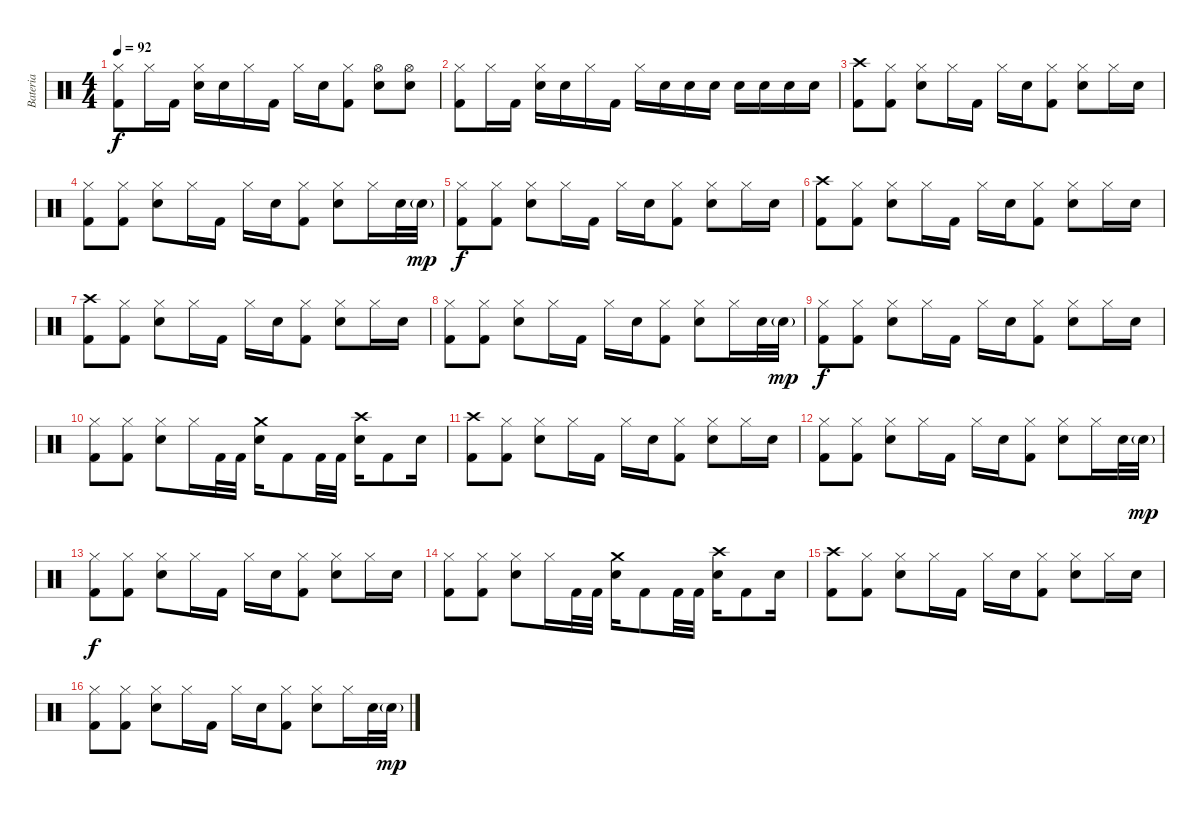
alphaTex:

\track ("Bateria" "Bateria") {instrument percussion}
\staff {score}
\articulation defaults
\ts (4 4)
\tempo 92
\clef neutral
\ks c
("Hi-Hat (closed)" "Kick (hit) 2").8{dy f} "Hi-Hat (closed)".16 "Kick (hit) 2".16 ("Electric Snare (hit)" "Hi-Hat (closed)").16 "Electric Snare (hit)".16 "Hi-Hat (closed)".16 "Kick (hit) 2".16 "Hi-Hat (closed)".16 "Electric Snare (hit)".16 ("Hi-Hat (closed)" "Kick (hit) 2").8 ("Electric Snare (hit)" "Hi-Hat (open)").8 ("Electric Snare (hit)" "Hi-Hat (open)").8 |
("Hi-Hat (closed)" "Kick (hit) 2").8 "Hi-Hat (closed)".16 "Kick (hit) 2".16 ("Electric Snare (hit)" "Hi-Hat (closed)").16 "Electric Snare (hit)".16 "Hi-Hat (closed)".16 "Kick (hit) 2".16 "Hi-Hat (closed)".16 "Electric Snare (hit)".16 "Electric Snare (hit)".16 "Electric Snare (hit)".16 "Electric Snare (hit)".16 "Electric Snare (hit)".16 "Electric Snare (hit)".16 "Electric Snare (hit)".16 |
("Crash high (hit)" "Kick (hit) 2").8 ("Hi-Hat (closed)" "Kick (hit) 2").8 ("Electric Snare (hit)" "Hi-Hat (closed)").8 "Hi-Hat (closed)".16 "Kick (hit) 2".16 "Hi-Hat (closed)".16 "Electric Snare (hit)".16 ("Hi-Hat (closed)" "Kick (hit) 2").8 ("Electric Snare (hit)" "Hi-Hat (closed)").8 "Hi-Hat (closed)".16 "Electric Snare (hit)".16 |
("Hi-Hat (closed)" "Kick (hit) 2").8 ("Hi-Hat (closed)" "Kick (hit) 2").8 ("Electric Snare (hit)" "Hi-Hat (closed)").8 "Hi-Hat (closed)".16 "Kick (hit) 2".16 "Hi-Hat (closed)".16 "Electric Snare (hit)".16 ("Hi-Hat (closed)" "Kick (hit) 2").8 ("Electric Snare (hit)" "Hi-Hat (closed)").8 "Hi-Hat (closed)".16 "Electric Snare (hit)".32 "Electric Snare (hit)"{g}.32{dy mp} |
("Hi-Hat (closed)" "Kick (hit) 2").8{dy f} ("Hi-Hat (closed)" "Kick (hit) 2").8 ("Electric Snare (hit)" "Hi-Hat (closed)").8 "Hi-Hat (closed)".16 "Kick (hit) 2".16 "Hi-Hat (closed)".16 "Electric Snare (hit)".16 ("Hi-Hat (closed)" "Kick (hit) 2").8 ("Electric Snare (hit)" "Hi-Hat (closed)").8 "Hi-Hat (closed)".16 "Electric Snare (hit)".16 |
("Crash high (hit)" "Kick (hit) 2").8 ("Hi-Hat (closed)" "Kick (hit) 2").8 ("Electric Snare (hit)" "Hi-Hat (closed)").8 "Hi-Hat (closed)".16 "Kick (hit) 2".16 "Hi-Hat (closed)".16 "Electric Snare (hit)".16 ("Hi-Hat (closed)" "Kick (hit) 2").8 ("Electric Snare (hit)" "Hi-Hat (closed)").8 "Hi-Hat (closed)".16 "Electric Snare (hit)".16 |
("Crash high (hit)" "Kick (hit) 2").8 ("Hi-Hat (closed)" "Kick (hit) 2").8 ("Electric Snare (hit)" "Hi-Hat (closed)").8 "Hi-Hat (closed)".16 "Kick (hit) 2".16 "Hi-Hat (closed)".16 "Electric Snare (hit)".16 ("Hi-Hat (closed)" "Kick (hit) 2").8 ("Electric Snare (hit)" "Hi-Hat (closed)").8 "Hi-Hat (closed)".16 "Electric Snare (hit)".16 |
("Hi-Hat (closed)" "Kick (hit) 2").8 ("Hi-Hat (closed)" "Kick (hit) 2").8 ("Electric Snare (hit)" "Hi-Hat (closed)").8 "Hi-Hat (closed)".16 "Kick (hit) 2".16 "Hi-Hat (closed)".16 "Electric Snare (hit)".16 ("Hi-Hat (closed)" "Kick (hit) 2").8 ("Electric Snare (hit)" "Hi-Hat (closed)").8 "Hi-Hat (closed)".16 "Electric Snare (hit)".32 "Electric Snare (hit)"{g}.32{dy mp} |
("Hi-Hat (closed)" "Kick (hit) 2").8{dy f} ("Hi-Hat (closed)" "Kick (hit) 2").8 ("Electric Snare (hit)" "Hi-Hat (closed)").8 "Hi-Hat (closed)".16 "Kick (hit) 2".16 "Hi-Hat (closed)".16 "Electric Snare (hit)".16 ("Hi-Hat (closed)" "Kick (hit) 2").8 ("Electric Snare (hit)" "Hi-Hat (closed)").8 "Hi-Hat (closed)".16 "Electric Snare (hit)".16 |
("Hi-Hat (closed)" "Kick (hit) 2").8 ("Hi-Hat (closed)" "Kick (hit) 2").8 ("Electric Snare (hit)" "Hi-Hat (closed)").8 "Hi-Hat (closed)".16 "Kick (hit) 2".32 "Kick (hit) 2".32 ("Crash medium (hit)" "Electric Snare (hit)").16 "Kick (hit) 2".8 "Kick (hit) 2".32 "Kick (hit) 2".32 ("Crash high (hit)" "Electric Snare (hit)").16 "Kick (hit) 2".8 "Electric Snare (hit)".16 |
("Crash high (hit)" "Kick (hit) 2").8 ("Hi-Hat (closed)" "Kick (hit) 2").8 ("Electric Snare (hit)" "Hi-Hat (closed)").8 "Hi-Hat (closed)".16 "Kick (hit) 2".16 "Hi-Hat (closed)".16 "Electric Snare (hit)".16 ("Hi-Hat (closed)" "Kick (hit) 2").8 ("Electric Snare (hit)" "Hi-Hat (closed)").8 "Hi-Hat (closed)".16 "Electric Snare (hit)".16 |
("Hi-Hat (closed)" "Kick (hit) 2").8 ("Hi-Hat (closed)" "Kick (hit) 2").8 ("Electric Snare (hit)" "Hi-Hat (closed)").8 "Hi-Hat (closed)".16 "Kick (hit) 2".16 "Hi-Hat (closed)".16 "Electric Snare (hit)".16 ("Hi-Hat (closed)" "Kick (hit) 2").8 ("Electric Snare (hit)" "Hi-Hat (closed)").8 "Hi-Hat (closed)".16 "Electric Snare (hit)".32 "Electric Snare (hit)"{g}.32{dy mp} |
("Hi-Hat (closed)" "Kick (hit) 2").8{dy f} ("Hi-Hat (closed)" "Kick (hit) 2").8 ("Electric Snare (hit)" "Hi-Hat (closed)").8 "Hi-Hat (closed)".16 "Kick (hit) 2".16 "Hi-Hat (closed)".16 "Electric Snare (hit)".16 ("Hi-Hat (closed)" "Kick (hit) 2").8 ("Electric Snare (hit)" "Hi-Hat (closed)").8 "Hi-Hat (closed)".16 "Electric Snare (hit)".16 |
("Hi-Hat (closed)" "Kick (hit) 2").8 ("Hi-Hat (closed)" "Kick (hit) 2").8 ("Electric Snare (hit)" "Hi-Hat (closed)").8 "Hi-Hat (closed)".16 "Kick (hit) 2".32 "Kick (hit) 2".32 ("Crash medium (hit)" "Electric Snare (hit)").16 "Kick (hit) 2".8 "Kick (hit) 2".32 "Kick (hit) 2".32 ("Crash high (hit)" "Electric Snare (hit)").16 "Kick (hit) 2".8 "Electric Snare (hit)".16 |
("Crash high (hit)" "Kick (hit) 2").8 ("Hi-Hat (closed)" "Kick (hit) 2").8 ("Electric Snare (hit)" "Hi-Hat (closed)").8 "Hi-Hat (closed)".16 "Kick (hit) 2".16 "Hi-Hat (closed)".16 "Electric Snare (hit)".16 ("Hi-Hat (closed)" "Kick (hit) 2").8 ("Electric Snare (hit)" "Hi-Hat (closed)").8 "Hi-Hat (closed)".16 "Electric Snare (hit)".16 |
("Hi-Hat (closed)" "Kick (hit) 2").8 ("Hi-Hat (closed)" "Kick (hit) 2").8 ("Electric Snare (hit)" "Hi-Hat (closed)").8 "Hi-Hat (closed)".16 "Kick (hit) 2".16 "Hi-Hat (closed)".16 "Electric Snare (hit)".16 ("Hi-Hat (closed)" "Kick (hit) 2").8 ("Electric Snare (hit)" "Hi-Hat (closed)").8 "Hi-Hat (closed)".16 "Electric Snare (hit)".32 "Electric Snare (hit)"{g}.32{dy mp}
